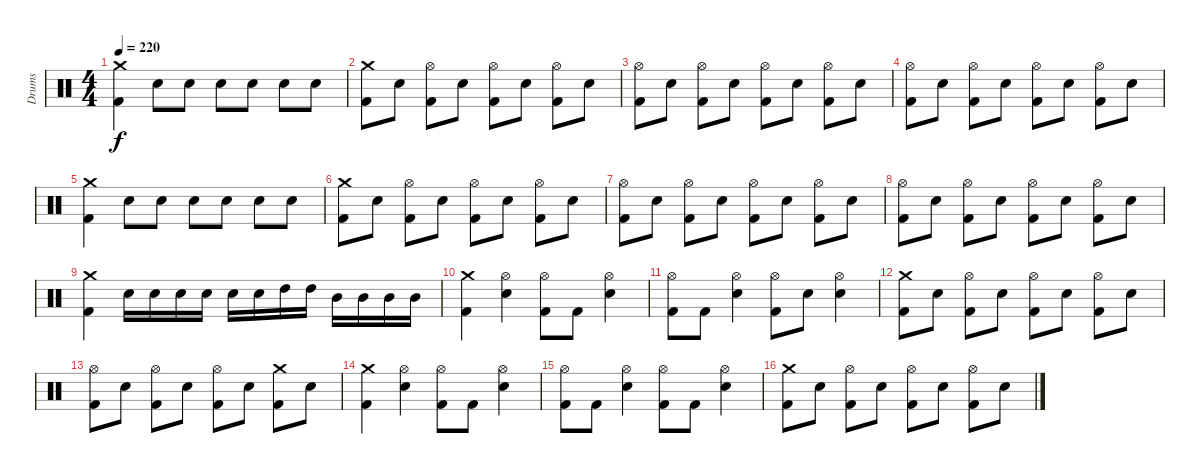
\track ("Drums" "Drums") {instrument percussion}
\staff {score}
\articulation defaults
\ts (4 4)
\tempo 220
\clef neutral
\ks c
("Crash medium (hit)" "Kick (hit) 2").4{dy f} "Electric Snare (hit)".8 "Electric Snare (hit)".8 "Electric Snare (hit)".8 "Electric Snare (hit)".8 "Electric Snare (hit)".8 "Electric Snare (hit)".8 |
("Crash medium (hit)" "Kick (hit) 2").8 "Electric Snare (hit)".8 ("Hi-Hat (open)" "Kick (hit) 2").8 "Electric Snare (hit)".8 ("Hi-Hat (open)" "Kick (hit) 2").8 "Electric Snare (hit)".8 ("Hi-Hat (open)" "Kick (hit) 2").8 "Electric Snare (hit)".8 |
("Hi-Hat (open)" "Kick (hit) 2").8 "Electric Snare (hit)".8 ("Hi-Hat (open)" "Kick (hit) 2").8 "Electric Snare (hit)".8 ("Hi-Hat (open)" "Kick (hit) 2").8 "Electric Snare (hit)".8 ("Hi-Hat (open)" "Kick (hit) 2").8 "Electric Snare (hit)".8 |
("Hi-Hat (open)" "Kick (hit) 2").8 "Electric Snare (hit)".8 ("Hi-Hat (open)" "Kick (hit) 2").8 "Electric Snare (hit)".8 ("Hi-Hat (open)" "Kick (hit) 2").8 "Electric Snare (hit)".8 ("Hi-Hat (open)" "Kick (hit) 2").8 "Electric Snare (hit)".8 |
("Crash medium (hit)" "Kick (hit) 2").4 "Electric Snare (hit)".8 "Electric Snare (hit)".8 "Electric Snare (hit)".8 "Electric Snare (hit)".8 "Electric Snare (hit)".8 "Electric Snare (hit)".8 |
("Crash medium (hit)" "Kick (hit) 2").8 "Electric Snare (hit)".8 ("Hi-Hat (open)" "Kick (hit) 2").8 "Electric Snare (hit)".8 ("Hi-Hat (open)" "Kick (hit) 2").8 "Electric Snare (hit)".8 ("Hi-Hat (open)" "Kick (hit) 2").8 "Electric Snare (hit)".8 |
("Hi-Hat (open)" "Kick (hit) 2").8 "Electric Snare (hit)".8 ("Hi-Hat (open)" "Kick (hit) 2").8 "Electric Snare (hit)".8 ("Hi-Hat (open)" "Kick (hit) 2").8 "Electric Snare (hit)".8 ("Hi-Hat (open)" "Kick (hit) 2").8 "Electric Snare (hit)".8 |
("Hi-Hat (open)" "Kick (hit) 2").8 "Electric Snare (hit)".8 ("Hi-Hat (open)" "Kick (hit) 2").8 "Electric Snare (hit)".8 ("Hi-Hat (open)" "Kick (hit) 2").8 "Electric Snare (hit)".8 ("Hi-Hat (open)" "Kick (hit) 2").8 "Electric Snare (hit)".8 |
("Crash medium (hit)" "Kick (hit) 2").4 "Electric Snare (hit)".16 "Electric Snare (hit)".16 "Electric Snare (hit)".16 "Electric Snare (hit)".16 "Electric Snare (hit)".16 "Electric Snare (hit)".16 "High Tom (hit)".16 "High Tom (hit)".16 "Mid Tom (hit)".16 "Mid Tom (hit)".16 "Mid Tom (hit)".16 "Mid Tom (hit)".16 |
("Crash medium (hit)" "Kick (hit) 2").4 ("Hi-Hat (open)" "Electric Snare (hit)").4 ("Hi-Hat (open)" "Kick (hit) 2").8 "Kick (hit) 2".8 ("Hi-Hat (open)" "Electric Snare (hit)").4 |
("Hi-Hat (open)" "Kick (hit) 2").8 "Kick (hit) 2".8 ("Hi-Hat (open)" "Electric Snare (hit)").4 ("Hi-Hat (open)" "Kick (hit) 2").8 "Electric Snare (hit)".8 ("Hi-Hat (open)" "Electric Snare (hit)").4 |
("Crash medium (hit)" "Kick (hit) 2").8 "Electric Snare (hit)".8 ("Hi-Hat (open)" "Kick (hit) 2").8 "Electric Snare (hit)".8 ("Hi-Hat (open)" "Kick (hit) 2").8 "Electric Snare (hit)".8 ("Hi-Hat (open)" "Kick (hit) 2").8 "Electric Snare (hit)".8 |
("Hi-Hat (open)" "Kick (hit) 2").8 "Electric Snare (hit)".8 ("Hi-Hat (open)" "Kick (hit) 2").8 "Electric Snare (hit)".8 ("Hi-Hat (open)" "Kick (hit) 2").8 "Electric Snare (hit)".8 ("Crash medium (hit)" "Kick (hit) 2").8 "Electric Snare (hit)".8 |
("Crash medium (hit)" "Kick (hit) 2").4 ("Hi-Hat (open)" "Electric Snare (hit)").4 ("Hi-Hat (open)" "Kick (hit) 2").8 "Kick (hit) 2".8 ("Hi-Hat (open)" "Electric Snare (hit)").4 |
("Hi-Hat (open)" "Kick (hit) 2").8 "Kick (hit) 2".8 ("Hi-Hat (open)" "Electric Snare (hit)").4 ("Hi-Hat (open)" "Kick (hit) 2").8 "Kick (hit) 2".8 ("Hi-Hat (open)" "Electric Snare (hit)").4 |
("Crash medium (hit)" "Kick (hit) 2").8 "Electric Snare (hit)".8 ("Hi-Hat (open)" "Kick (hit) 2").8 "Electric Snare (hit)".8 ("Hi-Hat (open)" "Kick (hit) 2").8 "Electric Snare (hit)".8 ("Hi-Hat (open)" "Kick (hit) 2").8 "Electric Snare (hit)".8
